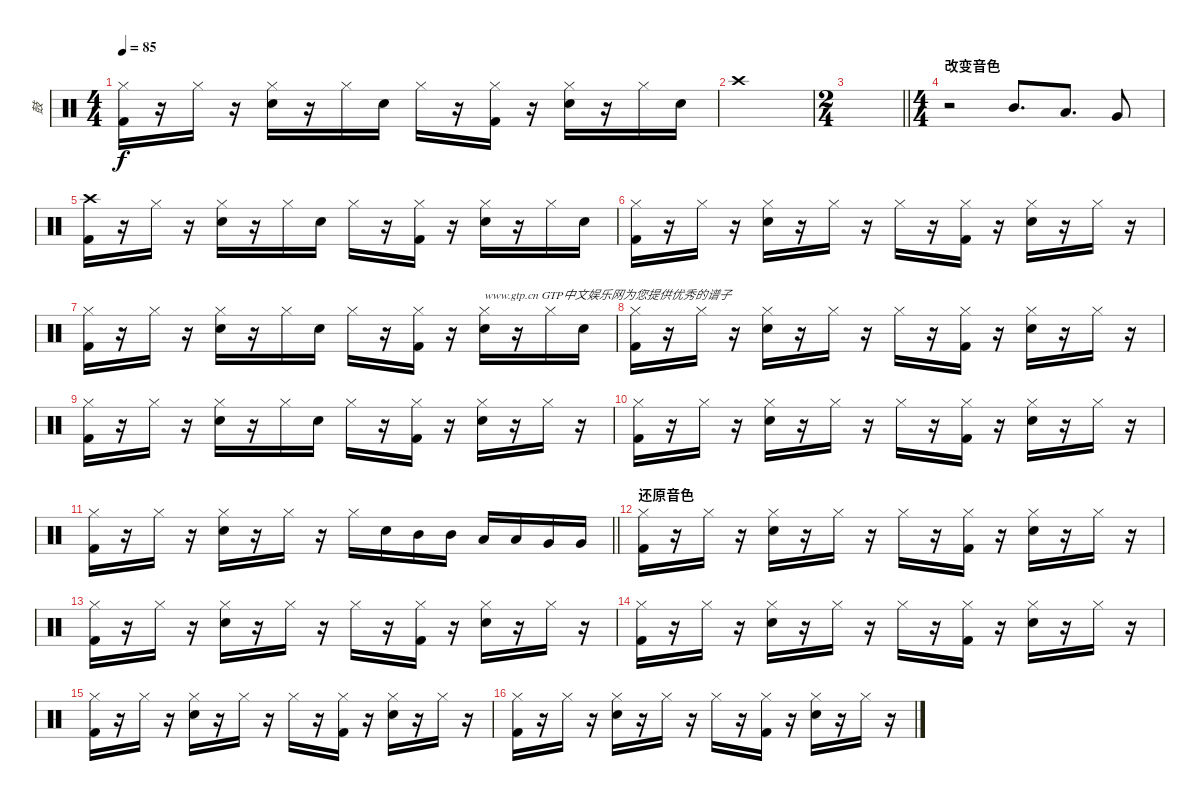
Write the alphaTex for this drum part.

\track ("鼓" "鼓") {instrument percussion}
\staff {score}
\articulation defaults
\ts (4 4)
\tempo 85
\clef neutral
\ks c
("Hi-Hat (closed)" "Kick (hit) 2").16{dy f} r.16 "Hi-Hat (closed)".16 r.16 ("Hi-Hat (closed)" "Snare (hit) 2").16 r.16 "Hi-Hat (closed)".16 "Snare (hit) 2".16 "Hi-Hat (closed)".16 r.16 ("Hi-Hat (closed)" "Kick (hit) 2").16 r.16 ("Hi-Hat (closed)" "Snare (hit) 2").16 r.16 "Hi-Hat (closed)".16 "Snare (hit) 2".16 |
"Crash high (hit)".1 |
\ts (2 4)
\barLineRight lightlight
|
\ts (4 4)
\section ("" "改变音色")
r.2 "Mid Tom (hit)".8{d} "Low Tom (hit)".8{d} "Very Low Tom (hit)".8 |
("Crash high (hit)" "Kick (hit) 2").16 r.16 "Hi-Hat (closed)".16 r.16 ("Hi-Hat (closed)" "Snare (hit) 2").16 r.16 "Hi-Hat (closed)".16 "Snare (hit) 2".16 "Hi-Hat (closed)".16 r.16 ("Hi-Hat (closed)" "Kick (hit) 2").16 r.16 ("Hi-Hat (closed)" "Snare (hit) 2").16 r.16 "Hi-Hat (closed)".16 "Snare (hit) 2".16 |
("Hi-Hat (closed)" "Kick (hit) 2").16 r.16 "Hi-Hat (closed)".16 r.16 ("Hi-Hat (closed)" "Snare (hit) 2").16 r.16 "Hi-Hat (closed)".16 r.16 "Hi-Hat (closed)".16 r.16 ("Hi-Hat (closed)" "Kick (hit) 2").16 r.16 ("Hi-Hat (closed)" "Snare (hit) 2").16 r.16 "Hi-Hat (closed)".16 r.16 |
("Hi-Hat (closed)" "Kick (hit) 2").16 r.16 "Hi-Hat (closed)".16 r.16 ("Hi-Hat (closed)" "Snare (hit) 2").16 r.16 "Hi-Hat (closed)".16 "Snare (hit) 2".16 "Hi-Hat (closed)".16 r.16 ("Hi-Hat (closed)" "Kick (hit) 2").16 r.16 ("Hi-Hat (closed)" "Snare (hit) 2").16{txt "www.gtp.cn GTP中文娱乐网为您提供优秀的谱子"} r.16 "Hi-Hat (closed)".16 "Snare (hit) 2".16 |
("Hi-Hat (closed)" "Kick (hit) 2").16 r.16 "Hi-Hat (closed)".16 r.16 ("Hi-Hat (closed)" "Snare (hit) 2").16 r.16 "Hi-Hat (closed)".16 r.16 "Hi-Hat (closed)".16 r.16 ("Hi-Hat (closed)" "Kick (hit) 2").16 r.16 ("Hi-Hat (closed)" "Snare (hit) 2").16 r.16 "Hi-Hat (closed)".16 r.16 |
("Hi-Hat (closed)" "Kick (hit) 2").16 r.16 "Hi-Hat (closed)".16 r.16 ("Hi-Hat (closed)" "Snare (hit) 2").16 r.16 "Hi-Hat (closed)".16 "Snare (hit) 2".16 "Hi-Hat (closed)".16 r.16 ("Hi-Hat (closed)" "Kick (hit) 2").16 r.16 ("Hi-Hat (closed)" "Snare (hit) 2").16 r.16 "Hi-Hat (closed)".16 r.16 |
("Hi-Hat (closed)" "Kick (hit) 2").16 r.16 "Hi-Hat (closed)".16 r.16 ("Hi-Hat (closed)" "Snare (hit) 2").16 r.16 "Hi-Hat (closed)".16 r.16 "Hi-Hat (closed)".16 r.16 ("Hi-Hat (closed)" "Kick (hit) 2").16 r.16 ("Hi-Hat (closed)" "Snare (hit) 2").16 r.16 "Hi-Hat (closed)".16 r.16 |
\barLineRight lightlight
("Hi-Hat (closed)" "Kick (hit) 2").16 r.16 "Hi-Hat (closed)".16 r.16 ("Hi-Hat (closed)" "Snare (hit) 2").16 r.16 "Hi-Hat (closed)".16 r.16 "Hi-Hat (closed)".16 "Snare (hit) 2".16 "Mid Tom (hit)".16 "Mid Tom (hit)".16 "Low Tom (hit)".16 "Low Tom (hit)".16 "Very Low Tom (hit)".16 "Very Low Tom (hit)".16 |
\section ("" "还原音色")
("Hi-Hat (closed)" "Kick (hit) 2").16 r.16 "Hi-Hat (closed)".16 r.16 ("Hi-Hat (closed)" "Snare (hit) 2").16 r.16 "Hi-Hat (closed)".16 r.16 "Hi-Hat (closed)".16 r.16 ("Hi-Hat (closed)" "Kick (hit) 2").16 r.16 ("Hi-Hat (closed)" "Snare (hit) 2").16 r.16 "Hi-Hat (closed)".16 r.16 |
("Hi-Hat (closed)" "Kick (hit) 2").16 r.16 "Hi-Hat (closed)".16 r.16 ("Hi-Hat (closed)" "Snare (hit) 2").16 r.16 "Hi-Hat (closed)".16 r.16 "Hi-Hat (closed)".16 r.16 ("Hi-Hat (closed)" "Kick (hit) 2").16 r.16 ("Hi-Hat (closed)" "Snare (hit) 2").16 r.16 "Hi-Hat (closed)".16 r.16 |
("Hi-Hat (closed)" "Kick (hit) 2").16 r.16 "Hi-Hat (closed)".16 r.16 ("Hi-Hat (closed)" "Snare (hit) 2").16 r.16 "Hi-Hat (closed)".16 r.16 "Hi-Hat (closed)".16 r.16 ("Hi-Hat (closed)" "Kick (hit) 2").16 r.16 ("Hi-Hat (closed)" "Snare (hit) 2").16 r.16 "Hi-Hat (closed)".16 r.16 |
("Hi-Hat (closed)" "Kick (hit) 2").16 r.16 "Hi-Hat (closed)".16 r.16 ("Hi-Hat (closed)" "Snare (hit) 2").16 r.16 "Hi-Hat (closed)".16 r.16 "Hi-Hat (closed)".16 r.16 ("Hi-Hat (closed)" "Kick (hit) 2").16 r.16 ("Hi-Hat (closed)" "Snare (hit) 2").16 r.16 "Hi-Hat (closed)".16 r.16 |
("Hi-Hat (closed)" "Kick (hit) 2").16 r.16 "Hi-Hat (closed)".16 r.16 ("Hi-Hat (closed)" "Snare (hit) 2").16 r.16 "Hi-Hat (closed)".16 r.16 "Hi-Hat (closed)".16 r.16 ("Hi-Hat (closed)" "Kick (hit) 2").16 r.16 ("Hi-Hat (closed)" "Snare (hit) 2").16 r.16 "Hi-Hat (closed)".16 r.16
